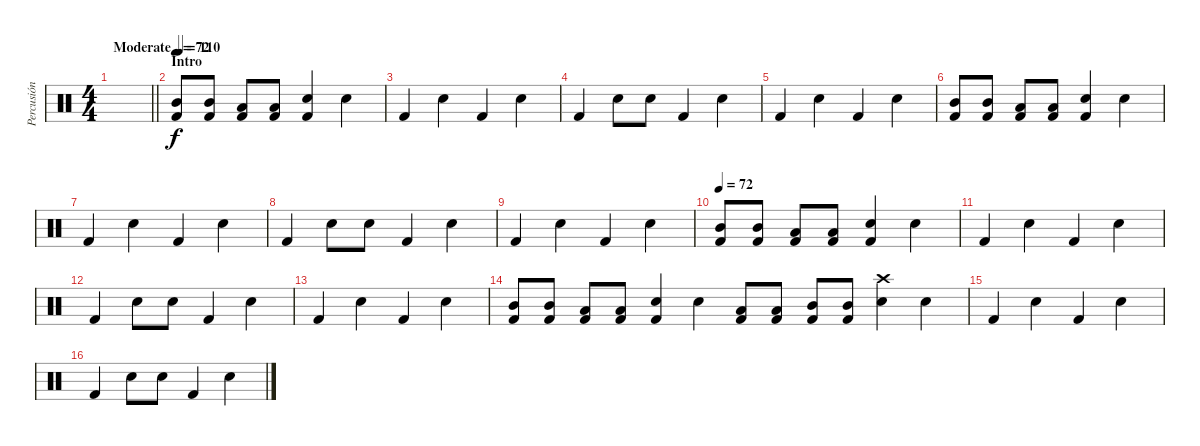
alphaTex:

\track ("Percusión" "Percusión") {instrument percussion}
\staff {score}
\articulation defaults
\ts (4 4)
\tempo (110 "Moderate")
\clef neutral
\barLineRight lightlight
\ks c
|
\section ("" "Intro")
\tempo 72
("Mid Tom (hit)" "Kick (hit) 2").8 ("Mid Tom (hit)" "Kick (hit) 2").8 ("Low Tom (hit)" "Kick (hit) 2").8 ("Low Tom (hit)" "Kick (hit) 2").8 ("Electric Snare (hit)" "Kick (hit) 2").4 "Electric Snare (hit)".4 |
"Kick (hit) 2".4 "Electric Snare (hit)".4 "Kick (hit) 2".4 "Electric Snare (hit)".4 |
"Kick (hit) 2".4 "Electric Snare (hit)".8 "Electric Snare (hit)".8 "Kick (hit) 2".4 "Electric Snare (hit)".4 |
"Kick (hit) 2".4 "Electric Snare (hit)".4 "Kick (hit) 2".4 "Electric Snare (hit)".4 |
("Mid Tom (hit)" "Kick (hit) 2").8 ("Mid Tom (hit)" "Kick (hit) 2").8 ("Low Tom (hit)" "Kick (hit) 2").8 ("Low Tom (hit)" "Kick (hit) 2").8 ("Electric Snare (hit)" "Kick (hit) 2").4 "Electric Snare (hit)".4 |
"Kick (hit) 2".4 "Electric Snare (hit)".4 "Kick (hit) 2".4 "Electric Snare (hit)".4 |
"Kick (hit) 2".4 "Electric Snare (hit)".8 "Electric Snare (hit)".8 "Kick (hit) 2".4 "Electric Snare (hit)".4 |
"Kick (hit) 2".4 "Electric Snare (hit)".4 "Kick (hit) 2".4 "Electric Snare (hit)".4 |
\tempo 72
("Mid Tom (hit)" "Kick (hit) 2").8 ("Mid Tom (hit)" "Kick (hit) 2").8 ("Low Tom (hit)" "Kick (hit) 2").8 ("Low Tom (hit)" "Kick (hit) 2").8 ("Electric Snare (hit)" "Kick (hit) 2").4 "Electric Snare (hit)".4 |
"Kick (hit) 2".4 "Electric Snare (hit)".4 "Kick (hit) 2".4 "Electric Snare (hit)".4 |
"Kick (hit) 2".4 "Electric Snare (hit)".8 "Electric Snare (hit)".8 "Kick (hit) 2".4 "Electric Snare (hit)".4 |
"Kick (hit) 2".4 "Electric Snare (hit)".4 "Kick (hit) 2".4 "Electric Snare (hit)".4 |
("Mid Tom (hit)" "Kick (hit) 2").8 ("Mid Tom (hit)" "Kick (hit) 2").8 ("Low Tom (hit)" "Kick (hit) 2").8 ("Low Tom (hit)" "Kick (hit) 2").8 ("Electric Snare (hit)" "Kick (hit) 2").4 "Electric Snare (hit)".4 ("Low Tom (hit)" "Kick (hit) 2").8 ("Low Tom (hit)" "Kick (hit) 2").8 ("Mid Tom (hit)" "Kick (hit) 2").8 ("Mid Tom (hit)" "Kick (hit) 2").8 ("Electric Snare (hit)" "Crash high (hit)").4 "Electric Snare (hit)".4 |
"Kick (hit) 2".4 "Electric Snare (hit)".4 "Kick (hit) 2".4 "Electric Snare (hit)".4 |
"Kick (hit) 2".4 "Electric Snare (hit)".8 "Electric Snare (hit)".8 "Kick (hit) 2".4 "Electric Snare (hit)".4
